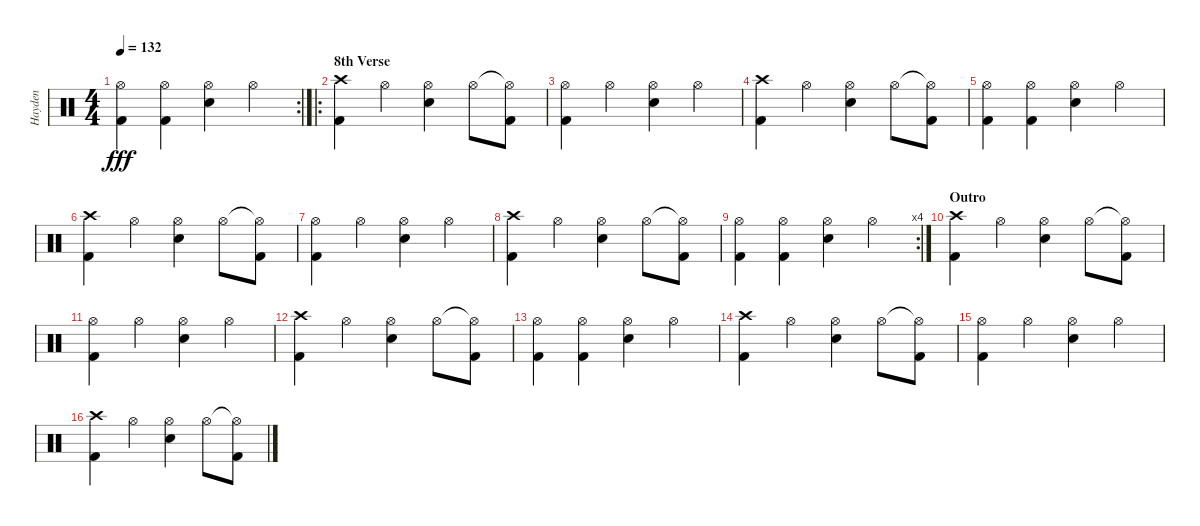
\track ("Hayden" "Hayden") {instrument percussion}
\staff {score}
\articulation defaults
\rc 2
\ts (4 4)
\tempo 132
\clef neutral
\ks c
("Hi-Hat (open)" "Kick (hit) 2").4{dy fff} ("Hi-Hat (open)" "Kick (hit) 2").4 ("Hi-Hat (open)" "Electric Snare (hit)").4 "Hi-Hat (open)".4 |
\ro
\section ("" "8th Verse")
("Crash high (hit)" "Kick (hit) 2").4 "Hi-Hat (open)".4 ("Hi-Hat (open)" "Electric Snare (hit)").4 "Hi-Hat (open)".8 ("Hi-Hat (open)"{t} "Kick (hit) 2").8 |
("Hi-Hat (open)" "Kick (hit) 2").4 "Hi-Hat (open)".4 ("Hi-Hat (open)" "Electric Snare (hit)").4 "Hi-Hat (open)".4 |
("Crash high (hit)" "Kick (hit) 2").4 "Hi-Hat (open)".4 ("Hi-Hat (open)" "Electric Snare (hit)").4 "Hi-Hat (open)".8 ("Hi-Hat (open)"{t} "Kick (hit) 2").8 |
("Hi-Hat (open)" "Kick (hit) 2").4 ("Hi-Hat (open)" "Kick (hit) 2").4 ("Hi-Hat (open)" "Electric Snare (hit)").4 "Hi-Hat (open)".4 |
("Crash high (hit)" "Kick (hit) 2").4 "Hi-Hat (open)".4 ("Hi-Hat (open)" "Electric Snare (hit)").4 "Hi-Hat (open)".8 ("Hi-Hat (open)"{t} "Kick (hit) 2").8 |
("Hi-Hat (open)" "Kick (hit) 2").4 "Hi-Hat (open)".4 ("Hi-Hat (open)" "Electric Snare (hit)").4 "Hi-Hat (open)".4 |
("Crash high (hit)" "Kick (hit) 2").4 "Hi-Hat (open)".4 ("Hi-Hat (open)" "Electric Snare (hit)").4 "Hi-Hat (open)".8 ("Hi-Hat (open)"{t} "Kick (hit) 2").8 |
\rc 4
("Hi-Hat (open)" "Kick (hit) 2").4 ("Hi-Hat (open)" "Kick (hit) 2").4 ("Hi-Hat (open)" "Electric Snare (hit)").4 "Hi-Hat (open)".4 |
\section ("" "Outro")
("Crash high (hit)" "Kick (hit) 2").4 "Hi-Hat (open)".4 ("Hi-Hat (open)" "Electric Snare (hit)").4 "Hi-Hat (open)".8 ("Hi-Hat (open)"{t} "Kick (hit) 2").8 |
("Hi-Hat (open)" "Kick (hit) 2").4 "Hi-Hat (open)".4 ("Hi-Hat (open)" "Electric Snare (hit)").4 "Hi-Hat (open)".4 |
("Crash high (hit)" "Kick (hit) 2").4 "Hi-Hat (open)".4 ("Hi-Hat (open)" "Electric Snare (hit)").4 "Hi-Hat (open)".8 ("Hi-Hat (open)"{t} "Kick (hit) 2").8 |
("Hi-Hat (open)" "Kick (hit) 2").4 ("Hi-Hat (open)" "Kick (hit) 2").4 ("Hi-Hat (open)" "Electric Snare (hit)").4 "Hi-Hat (open)".4 |
("Crash high (hit)" "Kick (hit) 2").4 "Hi-Hat (open)".4 ("Hi-Hat (open)" "Electric Snare (hit)").4 "Hi-Hat (open)".8 ("Hi-Hat (open)"{t} "Kick (hit) 2").8 |
("Hi-Hat (open)" "Kick (hit) 2").4 "Hi-Hat (open)".4 ("Hi-Hat (open)" "Electric Snare (hit)").4 "Hi-Hat (open)".4 |
("Crash high (hit)" "Kick (hit) 2").4 "Hi-Hat (open)".4 ("Hi-Hat (open)" "Electric Snare (hit)").4 "Hi-Hat (open)".8 ("Hi-Hat (open)"{t} "Kick (hit) 2").8
